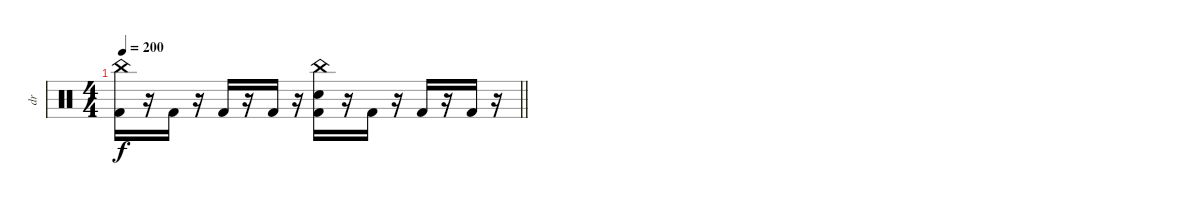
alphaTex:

\track ("dr" "dr") {instrument percussion}
\staff {score}
\articulation defaults
\ts (4 4)
\tempo 200
\clef neutral
\barLineRight lightlight
\ks c
("China (hit)" "Kick (hit) 2").16{dy f} r.16 "Kick (hit) 2".16 r.16 "Kick (hit) 2".16 r.16 "Kick (hit) 2".16 r.16 ("China (hit)" "Electric Snare (hit)" "Kick (hit) 2").16 r.16 "Kick (hit) 2".16 r.16 "Kick (hit) 2".16 r.16 "Kick (hit) 2".16 r.16
